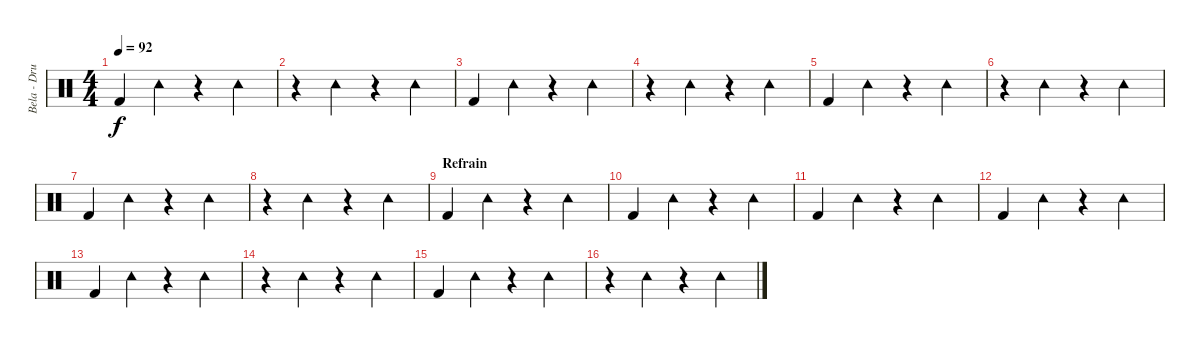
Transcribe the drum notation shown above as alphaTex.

\track ("Bela - Drums" "Bela - Dru") {instrument percussion}
\staff {score}
\articulation defaults
\ts (4 4)
\tempo 92
\clef neutral
\ks c "Kick (hit) 2".4{dy f} "Tambourine (hit)".4
r.4 "Tambourine (hit)".4 |
r.4 "Tambourine (hit)".4 r.4 "Tambourine (hit)".4 |
"Kick (hit) 2".4 "Tambourine (hit)".4 r.4 "Tambourine (hit)".4 |
r.4 "Tambourine (hit)".4 r.4 "Tambourine (hit)".4 |
"Kick (hit) 2".4 "Tambourine (hit)".4 r.4 "Tambourine (hit)".4 |
r.4 "Tambourine (hit)".4 r.4 "Tambourine (hit)".4 |
"Kick (hit) 2".4 "Tambourine (hit)".4 r.4 "Tambourine (hit)".4 |
r.4 "Tambourine (hit)".4 r.4 "Tambourine (hit)".4 |
\section ("" "Refrain")
"Kick (hit) 2".4 "Tambourine (hit)".4 r.4 "Tambourine (hit)".4 |
"Kick (hit) 2".4 "Tambourine (hit)".4 r.4 "Tambourine (hit)".4 |
"Kick (hit) 2".4 "Tambourine (hit)".4 r.4 "Tambourine (hit)".4 |
"Kick (hit) 2".4 "Tambourine (hit)".4 r.4 "Tambourine (hit)".4 |
"Kick (hit) 2".4 "Tambourine (hit)".4 r.4 "Tambourine (hit)".4 |
r.4 "Tambourine (hit)".4 r.4 "Tambourine (hit)".4 |
"Kick (hit) 2".4 "Tambourine (hit)".4 r.4 "Tambourine (hit)".4 |
r.4 "Tambourine (hit)".4 r.4 "Tambourine (hit)".4
